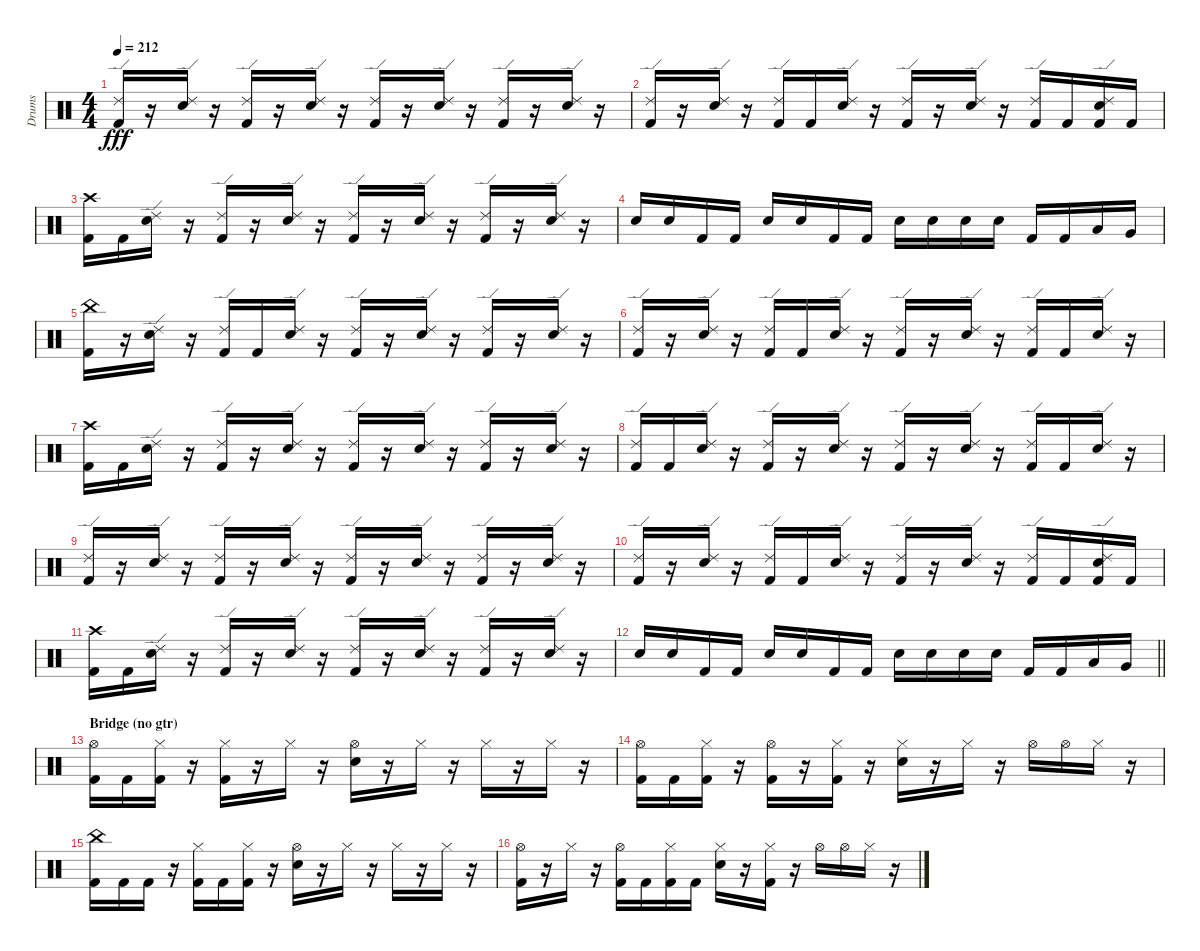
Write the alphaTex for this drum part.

\track ("Drums" "Drums") {instrument percussion}
\staff {score}
\articulation defaults
\ts (4 4)
\tempo 212
\clef neutral
\ks c
("Kick (hit) 2" "Ride (edge) 2").16{dy fff} r.16 ("Snare (hit) 2" "Ride (edge) 2").16 r.16 ("Kick (hit) 2" "Ride (edge) 2").16 r.16 ("Snare (hit) 2" "Ride (edge) 2").16 r.16 ("Kick (hit) 2" "Ride (edge) 2").16 r.16 ("Snare (hit) 2" "Ride (edge) 2").16 r.16 ("Kick (hit) 2" "Ride (edge) 2").16 r.16 ("Snare (hit) 2" "Ride (edge) 2").16 r.16 |
("Kick (hit) 2" "Ride (edge) 2").16 r.16 ("Snare (hit) 2" "Ride (edge) 2").16 r.16 ("Kick (hit) 2" "Ride (edge) 2").16 "Kick (hit) 2".16 ("Snare (hit) 2" "Ride (edge) 2").16 r.16 ("Kick (hit) 2" "Ride (edge) 2").16 r.16 ("Snare (hit) 2" "Ride (edge) 2").16 r.16 ("Kick (hit) 2" "Ride (edge) 2").16 "Kick (hit) 2".16 ("Kick (hit) 2" "Snare (hit) 2" "Ride (edge) 2").16 "Kick (hit) 2".16 |
("Kick (hit) 2" "Crash high (hit)").16 "Kick (hit) 2".16 ("Snare (hit) 2" "Ride (edge) 2").16 r.16 ("Kick (hit) 2" "Ride (edge) 2").16 r.16 ("Snare (hit) 2" "Ride (edge) 2").16 r.16 ("Kick (hit) 2" "Ride (edge) 2").16 r.16 ("Snare (hit) 2" "Ride (edge) 2").16 r.16 ("Kick (hit) 2" "Ride (edge) 2").16 r.16 ("Snare (hit) 2" "Ride (edge) 2").16 r.16 |
"Snare (hit) 2".16 "Snare (hit) 2".16 "Kick (hit) 2".16 "Kick (hit) 2".16 "Snare (hit) 2".16 "Snare (hit) 2".16 "Kick (hit) 2".16 "Kick (hit) 2".16 "Snare (hit) 2".16 "Snare (hit) 2".16 "Snare (hit) 2".16 "Snare (hit) 2".16 "Kick (hit) 2".16 "Kick (hit) 2".16 "Low Tom (hit)".16 "Very Low Tom (hit)".16 |
("Kick (hit) 2" "China (hit)").16 r.16 ("Snare (hit) 2" "Ride (edge) 2").16 r.16 ("Kick (hit) 2" "Ride (edge) 2").16 "Kick (hit) 2".16 ("Snare (hit) 2" "Ride (edge) 2").16 r.16 ("Kick (hit) 2" "Ride (edge) 2").16 r.16 ("Snare (hit) 2" "Ride (edge) 2").16 r.16 ("Kick (hit) 2" "Ride (edge) 2").16 r.16 ("Snare (hit) 2" "Ride (edge) 2").16 r.16 |
("Kick (hit) 2" "Ride (edge) 2").16 r.16 ("Snare (hit) 2" "Ride (edge) 2").16 r.16 ("Kick (hit) 2" "Ride (edge) 2").16 "Kick (hit) 2".16 ("Snare (hit) 2" "Ride (edge) 2").16 r.16 ("Kick (hit) 2" "Ride (edge) 2").16 r.16 ("Snare (hit) 2" "Ride (edge) 2").16 r.16 ("Kick (hit) 2" "Ride (edge) 2").16 "Kick (hit) 2".16 ("Snare (hit) 2" "Ride (edge) 2").16 r.16 |
("Kick (hit) 2" "Crash high (hit)").16 "Kick (hit) 2".16 ("Snare (hit) 2" "Ride (edge) 2").16 r.16 ("Kick (hit) 2" "Ride (edge) 2").16 r.16 ("Snare (hit) 2" "Ride (edge) 2").16 r.16 ("Kick (hit) 2" "Ride (edge) 2").16 r.16 ("Snare (hit) 2" "Ride (edge) 2").16 r.16 ("Kick (hit) 2" "Ride (edge) 2").16 r.16 ("Snare (hit) 2" "Ride (edge) 2").16 r.16 |
("Kick (hit) 2" "Ride (edge) 2").16 "Kick (hit) 2".16 ("Snare (hit) 2" "Ride (edge) 2").16 r.16 ("Kick (hit) 2" "Ride (edge) 2").16 r.16 ("Snare (hit) 2" "Ride (edge) 2").16 r.16 ("Kick (hit) 2" "Ride (edge) 2").16 r.16 ("Snare (hit) 2" "Ride (edge) 2").16 r.16 ("Kick (hit) 2" "Ride (edge) 2").16 "Kick (hit) 2".16 ("Snare (hit) 2" "Ride (edge) 2").16 r.16 |
("Kick (hit) 2" "Ride (edge) 2").16 r.16 ("Snare (hit) 2" "Ride (edge) 2").16 r.16 ("Kick (hit) 2" "Ride (edge) 2").16 r.16 ("Snare (hit) 2" "Ride (edge) 2").16 r.16 ("Kick (hit) 2" "Ride (edge) 2").16 r.16 ("Snare (hit) 2" "Ride (edge) 2").16 r.16 ("Kick (hit) 2" "Ride (edge) 2").16 r.16 ("Snare (hit) 2" "Ride (edge) 2").16 r.16 |
("Kick (hit) 2" "Ride (edge) 2").16 r.16 ("Snare (hit) 2" "Ride (edge) 2").16 r.16 ("Kick (hit) 2" "Ride (edge) 2").16 "Kick (hit) 2".16 ("Snare (hit) 2" "Ride (edge) 2").16 r.16 ("Kick (hit) 2" "Ride (edge) 2").16 r.16 ("Snare (hit) 2" "Ride (edge) 2").16 r.16 ("Kick (hit) 2" "Ride (edge) 2").16 "Kick (hit) 2".16 ("Kick (hit) 2" "Snare (hit) 2" "Ride (edge) 2").16 "Kick (hit) 2".16 |
("Kick (hit) 2" "Crash high (hit)").16 "Kick (hit) 2".16 ("Snare (hit) 2" "Ride (edge) 2").16 r.16 ("Kick (hit) 2" "Ride (edge) 2").16 r.16 ("Snare (hit) 2" "Ride (edge) 2").16 r.16 ("Kick (hit) 2" "Ride (edge) 2").16 r.16 ("Snare (hit) 2" "Ride (edge) 2").16 r.16 ("Kick (hit) 2" "Ride (edge) 2").16 r.16 ("Snare (hit) 2" "Ride (edge) 2").16 r.16 |
\barLineRight lightlight "Snare (hit) 2".16 "Snare (hit) 2".16 "Kick (hit) 2".16 "Kick (hit) 2".16 "Snare (hit) 2".16 "Snare (hit) 2".16 "Kick (hit) 2".16 "Kick (hit) 2".16 "Snare (hit) 2".16 "Snare (hit) 2".16 "Snare (hit) 2".16 "Snare (hit) 2".16 "Kick (hit) 2".16 "Kick (hit) 2".16 "Low Tom (hit)".16 "Very Low Tom (hit)".16
|
\section ("" "Bridge (no gtr)")
("Kick (hit) 2" "Hi-Hat (open)").16 "Kick (hit) 2".16 ("Kick (hit) 2" "Hi-Hat (closed)").16 r.16 ("Kick (hit) 2" "Hi-Hat (closed)").16 r.16 "Hi-Hat (closed)".16 r.16 ("Snare (hit) 2" "Hi-Hat (open)").16 r.16 "Hi-Hat (closed)".16 r.16 "Hi-Hat (closed)".16 r.16 "Hi-Hat (closed)".16 r.16 |
("Kick (hit) 2" "Hi-Hat (open)").16 "Kick (hit) 2".16 ("Kick (hit) 2" "Hi-Hat (closed)").16 r.16 ("Kick (hit) 2" "Hi-Hat (open)").16 r.16 ("Kick (hit) 2" "Hi-Hat (closed)").16 r.16 ("Snare (hit) 2" "Hi-Hat (closed)").16 r.16 "Hi-Hat (closed)".16 r.16 "Hi-Hat (open)".16 "Hi-Hat (open)".16 "Hi-Hat (closed)".16 r.16 |
("Kick (hit) 2" "China (hit)").16 "Kick (hit) 2".16 "Kick (hit) 2".16 r.16 ("Kick (hit) 2" "Hi-Hat (closed)").16 "Kick (hit) 2".16 ("Kick (hit) 2" "Hi-Hat (closed)").16 r.16 ("Snare (hit) 2" "Hi-Hat (open)").16 r.16 "Hi-Hat (closed)".16 r.16 "Hi-Hat (closed)".16 r.16 "Hi-Hat (closed)".16 r.16 |
("Kick (hit) 2" "Hi-Hat (open)").16 r.16 "Hi-Hat (closed)".16 r.16 ("Kick (hit) 2" "Hi-Hat (open)").16 "Kick (hit) 2".16 ("Kick (hit) 2" "Hi-Hat (closed)").16 "Kick (hit) 2".16 ("Snare (hit) 2" "Hi-Hat (closed)").16 r.16 ("Kick (hit) 2" "Hi-Hat (closed)").16 r.16 "Hi-Hat (open)".16 "Hi-Hat (open)".16 "Hi-Hat (closed)".16 r.16
